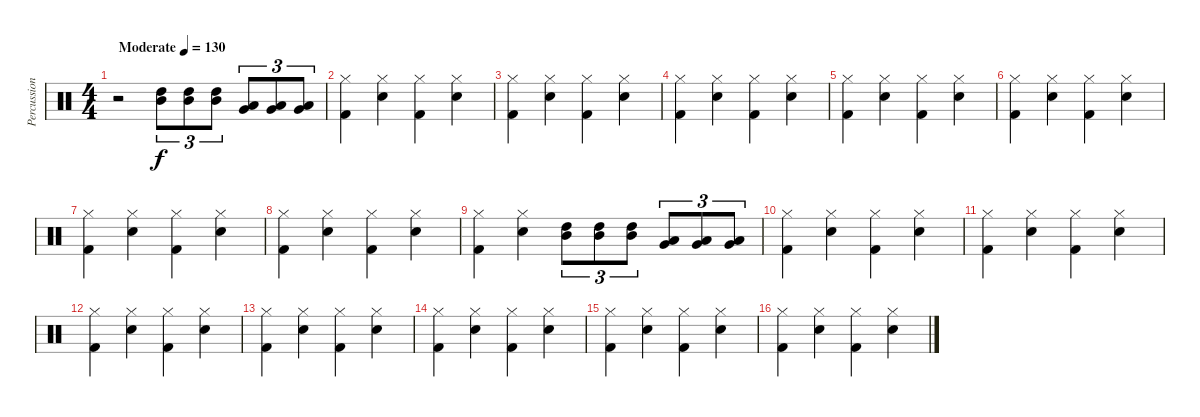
\track ("Percussion" "Percussion") {instrument percussion bank 177}
\staff {score}
\articulation defaults
\ts (4 4)
\tempo (130 "Moderate")
\clef neutral
\ks c
r.2{dy f} ("High Tom (hit)" "Mid Tom (hit)").8{tu (3 2)} ("High Tom (hit)" "Mid Tom (hit)").8{tu (3 2)} ("High Tom (hit)" "Mid Tom (hit)").8{tu (3 2)} ("Low Tom (hit)" "Very Low Tom (hit)").8{tu (3 2)} ("Low Tom (hit)" "Very Low Tom (hit)").8{tu (3 2)} ("Low Tom (hit)" "Very Low Tom (hit)").8{tu (3 2)} |
("Hi-Hat (closed)" "Kick (hit) 2").4 ("Hi-Hat (closed)" "Snare (hit) 2").4 ("Hi-Hat (closed)" "Kick (hit) 2").4 ("Hi-Hat (closed)" "Snare (hit) 2").4 |
("Hi-Hat (closed)" "Kick (hit) 2").4 ("Hi-Hat (closed)" "Snare (hit) 2").4 ("Hi-Hat (closed)" "Kick (hit) 2").4 ("Hi-Hat (closed)" "Snare (hit) 2").4 |
("Hi-Hat (closed)" "Kick (hit) 2").4 ("Hi-Hat (closed)" "Snare (hit) 2").4 ("Hi-Hat (closed)" "Kick (hit) 2").4 ("Hi-Hat (closed)" "Snare (hit) 2").4 |
("Hi-Hat (closed)" "Kick (hit) 2").4 ("Hi-Hat (closed)" "Snare (hit) 2").4 ("Hi-Hat (closed)" "Kick (hit) 2").4 ("Hi-Hat (closed)" "Snare (hit) 2").4 |
("Hi-Hat (closed)" "Kick (hit) 2").4 ("Hi-Hat (closed)" "Snare (hit) 2").4 ("Hi-Hat (closed)" "Kick (hit) 2").4 ("Hi-Hat (closed)" "Snare (hit) 2").4 |
("Hi-Hat (closed)" "Kick (hit) 2").4 ("Hi-Hat (closed)" "Snare (hit) 2").4 ("Hi-Hat (closed)" "Kick (hit) 2").4 ("Hi-Hat (closed)" "Snare (hit) 2").4 |
("Hi-Hat (closed)" "Kick (hit) 2").4 ("Hi-Hat (closed)" "Snare (hit) 2").4 ("Hi-Hat (closed)" "Kick (hit) 2").4 ("Hi-Hat (closed)" "Snare (hit) 2").4 |
("Hi-Hat (closed)" "Kick (hit) 2").4 ("Hi-Hat (closed)" "Snare (hit) 2").4 ("High Tom (hit)" "Mid Tom (hit)").8{tu (3 2)} ("High Tom (hit)" "Mid Tom (hit)").8{tu (3 2)} ("High Tom (hit)" "Mid Tom (hit)").8{tu (3 2)} ("Low Tom (hit)" "Very Low Tom (hit)").8{tu (3 2)} ("Low Tom (hit)" "Very Low Tom (hit)").8{tu (3 2)} ("Low Tom (hit)" "Very Low Tom (hit)").8{tu (3 2)} |
("Hi-Hat (closed)" "Kick (hit) 2").4 ("Hi-Hat (closed)" "Snare (hit) 2").4 ("Hi-Hat (closed)" "Kick (hit) 2").4 ("Hi-Hat (closed)" "Snare (hit) 2").4 |
("Hi-Hat (closed)" "Kick (hit) 2").4 ("Hi-Hat (closed)" "Snare (hit) 2").4 ("Hi-Hat (closed)" "Kick (hit) 2").4 ("Hi-Hat (closed)" "Snare (hit) 2").4 |
("Hi-Hat (closed)" "Kick (hit) 2").4 ("Hi-Hat (closed)" "Snare (hit) 2").4 ("Hi-Hat (closed)" "Kick (hit) 2").4 ("Hi-Hat (closed)" "Snare (hit) 2").4 |
("Hi-Hat (closed)" "Kick (hit) 2").4 ("Hi-Hat (closed)" "Snare (hit) 2").4 ("Hi-Hat (closed)" "Kick (hit) 2").4 ("Hi-Hat (closed)" "Snare (hit) 2").4 |
("Hi-Hat (closed)" "Kick (hit) 2").4 ("Hi-Hat (closed)" "Snare (hit) 2").4 ("Hi-Hat (closed)" "Kick (hit) 2").4 ("Hi-Hat (closed)" "Snare (hit) 2").4 |
("Hi-Hat (closed)" "Kick (hit) 2").4 ("Hi-Hat (closed)" "Snare (hit) 2").4 ("Hi-Hat (closed)" "Kick (hit) 2").4 ("Hi-Hat (closed)" "Snare (hit) 2").4 |
("Hi-Hat (closed)" "Kick (hit) 2").4 ("Hi-Hat (closed)" "Snare (hit) 2").4 ("Hi-Hat (closed)" "Kick (hit) 2").4 ("Hi-Hat (closed)" "Snare (hit) 2").4
